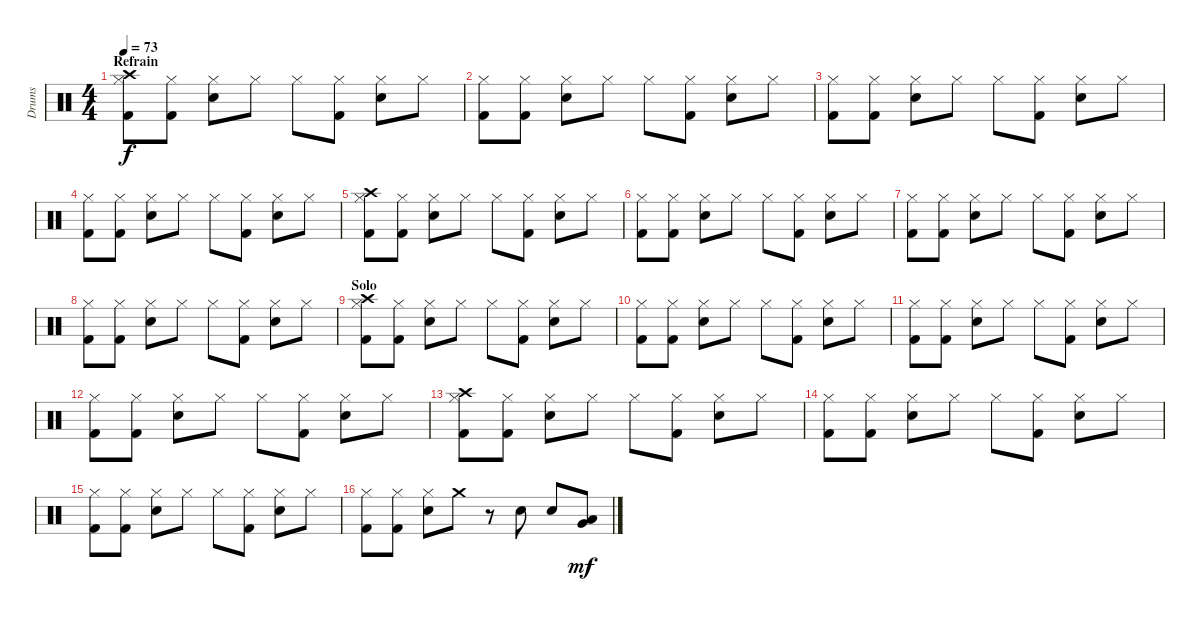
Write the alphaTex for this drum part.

\track ("Drums" "Drums") {instrument percussion}
\staff {score}
\articulation defaults
\ts (4 4)
\section ("" "Refrain")
\tempo 73
\clef neutral
\ks c
("Hi-Hat (closed)" "Crash high (hit)" "Kick (hit) 2").8{dy f} ("Hi-Hat (closed)" "Kick (hit) 2").8 ("Hi-Hat (closed)" "Electric Snare (hit)").8 "Hi-Hat (closed)".8 "Hi-Hat (closed)".8 ("Hi-Hat (closed)" "Kick (hit) 2").8 ("Hi-Hat (closed)" "Electric Snare (hit)").8 "Hi-Hat (closed)".8 |
("Hi-Hat (closed)" "Kick (hit) 2").8 ("Hi-Hat (closed)" "Kick (hit) 2").8 ("Hi-Hat (closed)" "Electric Snare (hit)").8 "Hi-Hat (closed)".8 "Hi-Hat (closed)".8 ("Hi-Hat (closed)" "Kick (hit) 2").8 ("Hi-Hat (closed)" "Electric Snare (hit)").8 "Hi-Hat (closed)".8 |
("Hi-Hat (closed)" "Kick (hit) 2").8 ("Hi-Hat (closed)" "Kick (hit) 2").8 ("Hi-Hat (closed)" "Electric Snare (hit)").8 "Hi-Hat (closed)".8 "Hi-Hat (closed)".8 ("Hi-Hat (closed)" "Kick (hit) 2").8 ("Hi-Hat (closed)" "Electric Snare (hit)").8 "Hi-Hat (closed)".8 |
("Hi-Hat (closed)" "Kick (hit) 2").8 ("Hi-Hat (closed)" "Kick (hit) 2").8 ("Hi-Hat (closed)" "Electric Snare (hit)").8 "Hi-Hat (closed)".8 "Hi-Hat (closed)".8 ("Hi-Hat (closed)" "Kick (hit) 2").8 ("Hi-Hat (closed)" "Electric Snare (hit)").8 "Hi-Hat (closed)".8 |
("Hi-Hat (closed)" "Crash high (hit)" "Kick (hit) 2").8 ("Hi-Hat (closed)" "Kick (hit) 2").8 ("Hi-Hat (closed)" "Electric Snare (hit)").8 "Hi-Hat (closed)".8 "Hi-Hat (closed)".8 ("Hi-Hat (closed)" "Kick (hit) 2").8 ("Hi-Hat (closed)" "Electric Snare (hit)").8 "Hi-Hat (closed)".8 |
("Hi-Hat (closed)" "Kick (hit) 2").8 ("Hi-Hat (closed)" "Kick (hit) 2").8 ("Hi-Hat (closed)" "Electric Snare (hit)").8 "Hi-Hat (closed)".8 "Hi-Hat (closed)".8 ("Hi-Hat (closed)" "Kick (hit) 2").8 ("Hi-Hat (closed)" "Electric Snare (hit)").8 "Hi-Hat (closed)".8 |
("Hi-Hat (closed)" "Kick (hit) 2").8 ("Hi-Hat (closed)" "Kick (hit) 2").8 ("Hi-Hat (closed)" "Electric Snare (hit)").8 "Hi-Hat (closed)".8 "Hi-Hat (closed)".8 ("Hi-Hat (closed)" "Kick (hit) 2").8 ("Hi-Hat (closed)" "Electric Snare (hit)").8 "Hi-Hat (closed)".8 |
("Hi-Hat (closed)" "Kick (hit) 2").8 ("Hi-Hat (closed)" "Kick (hit) 2").8 ("Hi-Hat (closed)" "Electric Snare (hit)").8 "Hi-Hat (closed)".8 "Hi-Hat (closed)".8 ("Hi-Hat (closed)" "Kick (hit) 2").8 ("Hi-Hat (closed)" "Electric Snare (hit)").8 "Hi-Hat (closed)".8 |
\section ("" "Solo")
("Hi-Hat (closed)" "Crash high (hit)" "Kick (hit) 2").8 ("Hi-Hat (closed)" "Kick (hit) 2").8 ("Hi-Hat (closed)" "Electric Snare (hit)").8 "Hi-Hat (closed)".8 "Hi-Hat (closed)".8 ("Hi-Hat (closed)" "Kick (hit) 2").8 ("Hi-Hat (closed)" "Electric Snare (hit)").8 "Hi-Hat (closed)".8 |
("Hi-Hat (closed)" "Kick (hit) 2").8 ("Hi-Hat (closed)" "Kick (hit) 2").8 ("Hi-Hat (closed)" "Electric Snare (hit)").8 "Hi-Hat (closed)".8 "Hi-Hat (closed)".8 ("Hi-Hat (closed)" "Kick (hit) 2").8 ("Hi-Hat (closed)" "Electric Snare (hit)").8 "Hi-Hat (closed)".8 |
("Hi-Hat (closed)" "Kick (hit) 2").8 ("Hi-Hat (closed)" "Kick (hit) 2").8 ("Hi-Hat (closed)" "Electric Snare (hit)").8 "Hi-Hat (closed)".8 "Hi-Hat (closed)".8 ("Hi-Hat (closed)" "Kick (hit) 2").8 ("Hi-Hat (closed)" "Electric Snare (hit)").8 "Hi-Hat (closed)".8 |
("Hi-Hat (closed)" "Kick (hit) 2").8 ("Hi-Hat (closed)" "Kick (hit) 2").8 ("Hi-Hat (closed)" "Electric Snare (hit)").8 "Hi-Hat (closed)".8 "Hi-Hat (closed)".8 ("Hi-Hat (closed)" "Kick (hit) 2").8 ("Hi-Hat (closed)" "Electric Snare (hit)").8 "Hi-Hat (closed)".8 |
("Hi-Hat (closed)" "Crash high (hit)" "Kick (hit) 2").8 ("Hi-Hat (closed)" "Kick (hit) 2").8 ("Hi-Hat (closed)" "Electric Snare (hit)").8 "Hi-Hat (closed)".8 "Hi-Hat (closed)".8 ("Hi-Hat (closed)" "Kick (hit) 2").8 ("Hi-Hat (closed)" "Electric Snare (hit)").8 "Hi-Hat (closed)".8 |
("Hi-Hat (closed)" "Kick (hit) 2").8 ("Hi-Hat (closed)" "Kick (hit) 2").8 ("Hi-Hat (closed)" "Electric Snare (hit)").8 "Hi-Hat (closed)".8 "Hi-Hat (closed)".8 ("Hi-Hat (closed)" "Kick (hit) 2").8 ("Hi-Hat (closed)" "Electric Snare (hit)").8 "Hi-Hat (closed)".8 |
("Hi-Hat (closed)" "Kick (hit) 2").8 ("Hi-Hat (closed)" "Kick (hit) 2").8 ("Hi-Hat (closed)" "Electric Snare (hit)").8 "Hi-Hat (closed)".8 "Hi-Hat (closed)".8 ("Hi-Hat (closed)" "Kick (hit) 2").8 ("Hi-Hat (closed)" "Electric Snare (hit)").8 "Hi-Hat (closed)".8 |
("Hi-Hat (closed)" "Kick (hit) 2").8 ("Hi-Hat (closed)" "Kick (hit) 2").8 ("Hi-Hat (closed)" "Electric Snare (hit)").8 "Crash medium (hit)".8 r.8 "Electric Snare (hit)".8 "Electric Snare (hit)".8 ("Very Low Tom (hit)" "Low Tom (hit)").8{dy mf}
